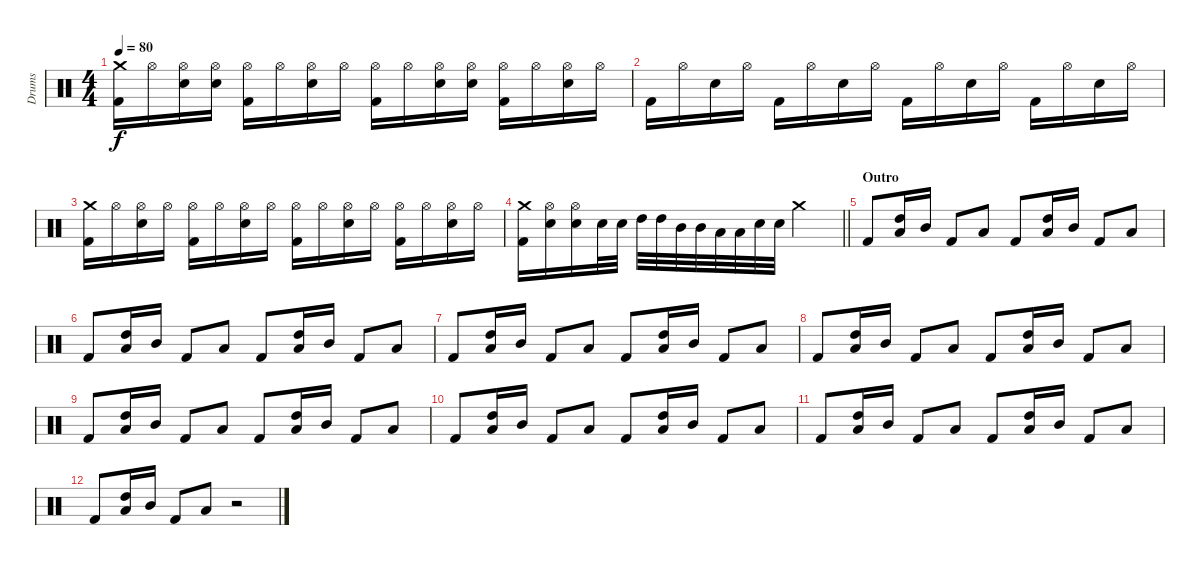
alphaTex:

\track ("Drums" "Drums") {instrument percussion}
\staff {score}
\articulation defaults
\ts (4 4)
\tempo 80
\clef neutral
\ks c
("Crash medium (hit)" "Kick (hit) 2").16{dy f} "Hi-Hat (open)".16 ("Hi-Hat (open)" "Snare (hit) 2").16 ("Hi-Hat (open)" "Snare (hit) 2").16 ("Hi-Hat (open)" "Kick (hit) 2").16 "Hi-Hat (open)".16 ("Hi-Hat (open)" "Snare (hit) 2").16 "Hi-Hat (open)".16 ("Hi-Hat (open)" "Kick (hit) 2").16 "Hi-Hat (open)".16 ("Hi-Hat (open)" "Snare (hit) 2").16 ("Hi-Hat (open)" "Snare (hit) 2").16 ("Hi-Hat (open)" "Kick (hit) 2").16 "Hi-Hat (open)".16 ("Hi-Hat (open)" "Snare (hit) 2").16 "Hi-Hat (open)".16 |
"Kick (hit) 2".16 "Hi-Hat (open)".16 "Snare (hit) 2".16 "Hi-Hat (open)".16 "Kick (hit) 2".16 "Hi-Hat (open)".16 "Snare (hit) 2".16 "Hi-Hat (open)".16 "Kick (hit) 2".16 "Hi-Hat (open)".16 "Snare (hit) 2".16 "Hi-Hat (open)".16 "Kick (hit) 2".16 "Hi-Hat (open)".16 "Snare (hit) 2".16 "Hi-Hat (open)".16 |
("Crash medium (hit)" "Kick (hit) 2").16 "Hi-Hat (open)".16 ("Hi-Hat (open)" "Snare (hit) 2").16 "Hi-Hat (open)".16 ("Hi-Hat (open)" "Kick (hit) 2").16 "Hi-Hat (open)".16 ("Hi-Hat (open)" "Snare (hit) 2").16 "Hi-Hat (open)".16 ("Hi-Hat (open)" "Kick (hit) 2").16 "Hi-Hat (open)".16 ("Hi-Hat (open)" "Snare (hit) 2").16 "Hi-Hat (open)".16 ("Hi-Hat (open)" "Kick (hit) 2").16 "Hi-Hat (open)".16 ("Hi-Hat (open)" "Snare (hit) 2").16 "Hi-Hat (open)".16 |
\barLineRight lightlight
("Crash medium (hit)" "Kick (hit) 2").16 ("Hi-Hat (open)" "Snare (hit) 2").16 ("Hi-Hat (open)" "Snare (hit) 2").16 "Snare (hit) 2".32 "Snare (hit) 2".32 "High Tom (hit)".32 "High Tom (hit)".32 "Mid Tom (hit)".32 "Mid Tom (hit)".32 "Low Tom (hit)".32 "Low Tom (hit)".32 "Snare (hit) 2".32 "Snare (hit) 2".32 "Crash medium (hit)".2 |
\section ("" "Outro")
"Kick (hit) 2".8 ("High Tom (hit)" "Low Tom (hit)").16 "Mid Tom (hit)".16 "Kick (hit) 2".8 "Low Tom (hit)".8 "Kick (hit) 2".8 ("High Tom (hit)" "Low Tom (hit)").16 "Mid Tom (hit)".16 "Kick (hit) 2".8 "Low Tom (hit)".8 |
"Kick (hit) 2".8 ("High Tom (hit)" "Low Tom (hit)").16 "Mid Tom (hit)".16 "Kick (hit) 2".8 "Low Tom (hit)".8 "Kick (hit) 2".8 ("High Tom (hit)" "Low Tom (hit)").16 "Mid Tom (hit)".16 "Kick (hit) 2".8 "Low Tom (hit)".8 |
"Kick (hit) 2".8 ("High Tom (hit)" "Low Tom (hit)").16 "Mid Tom (hit)".16 "Kick (hit) 2".8 "Low Tom (hit)".8 "Kick (hit) 2".8 ("High Tom (hit)" "Low Tom (hit)").16 "Mid Tom (hit)".16 "Kick (hit) 2".8 "Low Tom (hit)".8 |
"Kick (hit) 2".8 ("High Tom (hit)" "Low Tom (hit)").16 "Mid Tom (hit)".16 "Kick (hit) 2".8 "Low Tom (hit)".8 "Kick (hit) 2".8 ("High Tom (hit)" "Low Tom (hit)").16 "Mid Tom (hit)".16 "Kick (hit) 2".8 "Low Tom (hit)".8 |
"Kick (hit) 2".8 ("High Tom (hit)" "Low Tom (hit)").16 "Mid Tom (hit)".16 "Kick (hit) 2".8 "Low Tom (hit)".8 "Kick (hit) 2".8 ("High Tom (hit)" "Low Tom (hit)").16 "Mid Tom (hit)".16 "Kick (hit) 2".8 "Low Tom (hit)".8 |
"Kick (hit) 2".8 ("High Tom (hit)" "Low Tom (hit)").16 "Mid Tom (hit)".16 "Kick (hit) 2".8 "Low Tom (hit)".8 "Kick (hit) 2".8 ("High Tom (hit)" "Low Tom (hit)").16 "Mid Tom (hit)".16 "Kick (hit) 2".8 "Low Tom (hit)".8 |
"Kick (hit) 2".8 ("High Tom (hit)" "Low Tom (hit)").16 "Mid Tom (hit)".16 "Kick (hit) 2".8 "Low Tom (hit)".8 "Kick (hit) 2".8 ("High Tom (hit)" "Low Tom (hit)").16 "Mid Tom (hit)".16 "Kick (hit) 2".8 "Low Tom (hit)".8 |
"Kick (hit) 2".8 ("High Tom (hit)" "Low Tom (hit)").16 "Mid Tom (hit)".16 "Kick (hit) 2".8 "Low Tom (hit)".8 r.2
